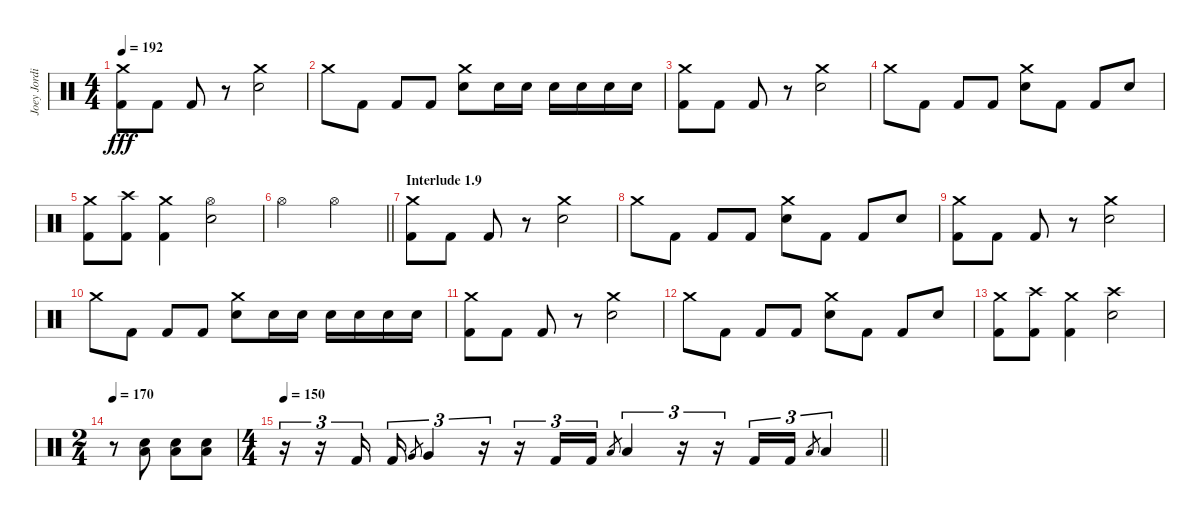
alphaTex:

\track ("Joey Jordison" "Joey Jordi") {instrument percussion}
\staff {score}
\articulation defaults
\ts (4 4)
\tempo 192
\clef neutral
\ks c
("Crash medium (hit)" "Kick (hit) 2").8{dy fff} "Kick (hit) 2".8 "Kick (hit) 2".8 r.8 ("Crash medium (hit)" "Electric Snare (hit)").2 |
"Crash medium (hit)".8 "Kick (hit) 2".8 "Kick (hit) 2".8 "Kick (hit) 2".8 ("Crash medium (hit)" "Electric Snare (hit)").8 "Electric Snare (hit)".16 "Electric Snare (hit)".16 "Electric Snare (hit)".16 "Electric Snare (hit)".16 "Electric Snare (hit)".16 "Electric Snare (hit)".16 |
("Crash medium (hit)" "Kick (hit) 2").8 "Kick (hit) 2".8 "Kick (hit) 2".8 r.8 ("Crash medium (hit)" "Electric Snare (hit)").2 |
"Crash medium (hit)".8 "Kick (hit) 2".8 "Kick (hit) 2".8 "Kick (hit) 2".8 ("Crash medium (hit)" "Electric Snare (hit)").8 "Kick (hit) 2".8 "Kick (hit) 2".8 "Electric Snare (hit)".8 |
("Crash medium (hit)" "Kick (hit) 2").8 ("Crash high (hit)" "Kick (hit) 2").8 ("Crash medium (hit)" "Kick (hit) 2").4 ("Hi-Hat (open)" "Electric Snare (hit)").2 |
\barLineRight lightlight "Hi-Hat (open)".2 "Hi-Hat (open)".2
|
\section ("" "Interlude 1.9")
("Crash medium (hit)" "Kick (hit) 2").8 "Kick (hit) 2".8 "Kick (hit) 2".8 r.8 ("Crash medium (hit)" "Electric Snare (hit)").2 |
"Crash medium (hit)".8 "Kick (hit) 2".8 "Kick (hit) 2".8 "Kick (hit) 2".8 ("Crash medium (hit)" "Electric Snare (hit)").8 "Kick (hit) 2".8 "Kick (hit) 2".8 "Electric Snare (hit)".8 |
("Crash medium (hit)" "Kick (hit) 2").8 "Kick (hit) 2".8 "Kick (hit) 2".8 r.8 ("Crash medium (hit)" "Electric Snare (hit)").2 |
"Crash medium (hit)".8 "Kick (hit) 2".8 "Kick (hit) 2".8 "Kick (hit) 2".8 ("Crash medium (hit)" "Electric Snare (hit)").8 "Electric Snare (hit)".16 "Electric Snare (hit)".16 "Electric Snare (hit)".16 "Electric Snare (hit)".16 "Electric Snare (hit)".16 "Electric Snare (hit)".16 |
("Crash medium (hit)" "Kick (hit) 2").8 "Kick (hit) 2".8 "Kick (hit) 2".8 r.8 ("Crash medium (hit)" "Electric Snare (hit)").2 |
"Crash medium (hit)".8 "Kick (hit) 2".8 "Kick (hit) 2".8 "Kick (hit) 2".8 ("Crash medium (hit)" "Electric Snare (hit)").8 "Kick (hit) 2".8 "Kick (hit) 2".8 "Electric Snare (hit)".8 |
("Crash medium (hit)" "Kick (hit) 2").8 ("Crash high (hit)" "Kick (hit) 2").8 ("Crash medium (hit)" "Kick (hit) 2").4 ("Crash high (hit)" "Electric Snare (hit)").2 |
\ts (2 4)
\tempo 170
r.8 ("Electric Snare (hit)" "Low Floor Tom (hit)").8 ("Electric Snare (hit)" "Low Floor Tom (hit)").8 ("Electric Snare (hit)" "Low Floor Tom (hit)").8 |
\ts (4 4)
\tempo 150
\barLineRight lightlight
r.16{tu (3 2)} r.16{tu (3 2)} "Kick (hit) 2".16{tu (3 2)} "Kick (hit) 2".16{tu (3 2)} "Very Low Tom (hit)".8{gr} "Very Low Tom (hit)".4{tu (3 2)} r.16{tu (3 2)} r.16{tu (3 2)} "Kick (hit) 2".16{tu (3 2)} "Kick (hit) 2".16{tu (3 2)} "Low Tom (hit)".8{gr} "Low Tom (hit)".4{tu (3 2)} r.16{tu (3 2)} r.16{tu (3 2)} "Kick (hit) 2".16{tu (3 2)} "Kick (hit) 2".16{tu (3 2)} "Low Floor Tom (hit)".8{gr} "Low Floor Tom (hit)".4{tu (3 2)}
